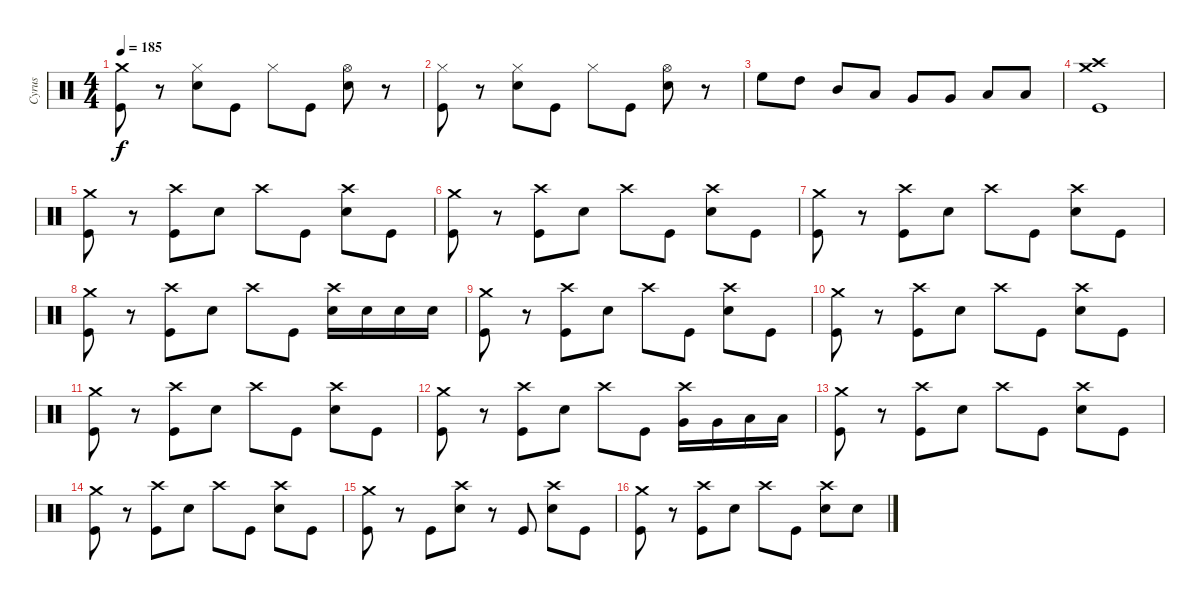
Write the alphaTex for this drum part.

\track ("Cyrus" "Cyrus") {instrument percussion}
\staff {score}
\articulation defaults
\ts (4 4)
\tempo 185
\clef neutral
\ks c
("Crash medium (hit)" "Kick (hit)").8{dy f} r.8 ("Hi-Hat (closed)" "Electric Snare (hit)").8 "Kick (hit)".8 "Hi-Hat (closed)".8 "Kick (hit)".8 ("Hi-Hat (open)" "Electric Snare (hit)").8 r.8 |
("Hi-Hat (closed)" "Kick (hit)").8 r.8 ("Hi-Hat (closed)" "Electric Snare (hit)").8 "Kick (hit)".8 "Hi-Hat (closed)".8 "Kick (hit)".8 ("Hi-Hat (open)" "Electric Snare (hit)").8 r.8 |
"High Floor Tom (hit)".8 "High Tom (hit)".8 "Mid Tom (hit)".8 "Low Tom (hit)".8 "Very Low Tom (hit)".8 "Very Low Tom (hit)".8 "Low Floor Tom (hit)".8 "Low Floor Tom (hit)".8 |
("Crash medium (hit)" "Crash high (hit)" "Kick (hit)").1 |
("Crash medium (hit)" "Kick (hit)").8 r.8 ("Crash high (hit)" "Kick (hit)").8 "Electric Snare (hit)".8 "Crash high (hit)".8 "Kick (hit)".8 ("Crash high (hit)" "Electric Snare (hit)").8 "Kick (hit)".8 |
("Crash medium (hit)" "Kick (hit)").8 r.8 ("Crash high (hit)" "Kick (hit)").8 "Electric Snare (hit)".8 "Crash high (hit)".8 "Kick (hit)".8 ("Crash high (hit)" "Electric Snare (hit)").8 "Kick (hit)".8 |
("Crash medium (hit)" "Kick (hit)").8 r.8 ("Crash high (hit)" "Kick (hit)").8 "Electric Snare (hit)".8 "Crash high (hit)".8 "Kick (hit)".8 ("Crash high (hit)" "Electric Snare (hit)").8 "Kick (hit)".8 |
("Crash medium (hit)" "Kick (hit)").8 r.8 ("Crash high (hit)" "Kick (hit)").8 "Electric Snare (hit)".8 "Crash high (hit)".8 "Kick (hit)".8 ("Crash high (hit)" "Electric Snare (hit)").16 "Electric Snare (hit)".16 "Electric Snare (hit)".16 "Electric Snare (hit)".16 |
("Crash medium (hit)" "Kick (hit)").8 r.8 ("Crash high (hit)" "Kick (hit)").8 "Electric Snare (hit)".8 "Crash high (hit)".8 "Kick (hit)".8 ("Crash high (hit)" "Electric Snare (hit)").8 "Kick (hit)".8 |
("Crash medium (hit)" "Kick (hit)").8 r.8 ("Crash high (hit)" "Kick (hit)").8 "Electric Snare (hit)".8 "Crash high (hit)".8 "Kick (hit)".8 ("Crash high (hit)" "Electric Snare (hit)").8 "Kick (hit)".8 |
("Crash medium (hit)" "Kick (hit)").8 r.8 ("Crash high (hit)" "Kick (hit)").8 "Electric Snare (hit)".8 "Crash high (hit)".8 "Kick (hit)".8 ("Crash high (hit)" "Electric Snare (hit)").8 "Kick (hit)".8 |
("Crash medium (hit)" "Kick (hit)").8 r.8 ("Crash high (hit)" "Kick (hit)").8 "Electric Snare (hit)".8 "Crash high (hit)".8 "Kick (hit)".8 ("Crash high (hit)" "Very Low Tom (hit)").16 "Very Low Tom (hit)".16 "Low Floor Tom (hit)".16 "Low Floor Tom (hit)".16 |
("Crash medium (hit)" "Kick (hit)").8 r.8 ("Crash high (hit)" "Kick (hit)").8 "Electric Snare (hit)".8 "Crash high (hit)".8 "Kick (hit)".8 ("Crash high (hit)" "Electric Snare (hit)").8 "Kick (hit)".8 |
("Crash medium (hit)" "Kick (hit)").8 r.8 ("Crash high (hit)" "Kick (hit)").8 "Electric Snare (hit)".8 "Crash high (hit)".8 "Kick (hit)".8 ("Crash high (hit)" "Electric Snare (hit)").8 "Kick (hit)".8 |
("Crash medium (hit)" "Kick (hit)").8 r.8 "Kick (hit)".8 ("Crash high (hit)" "Electric Snare (hit)").8 r.8 "Kick (hit)".8 ("Crash high (hit)" "Electric Snare (hit)").8 "Kick (hit)".8 |
("Crash medium (hit)" "Kick (hit)").8 r.8 ("Crash high (hit)" "Kick (hit)").8 "Electric Snare (hit)".8 "Crash high (hit)".8 "Kick (hit)".8 ("Crash high (hit)" "Electric Snare (hit)").8 "Electric Snare (hit)".8
